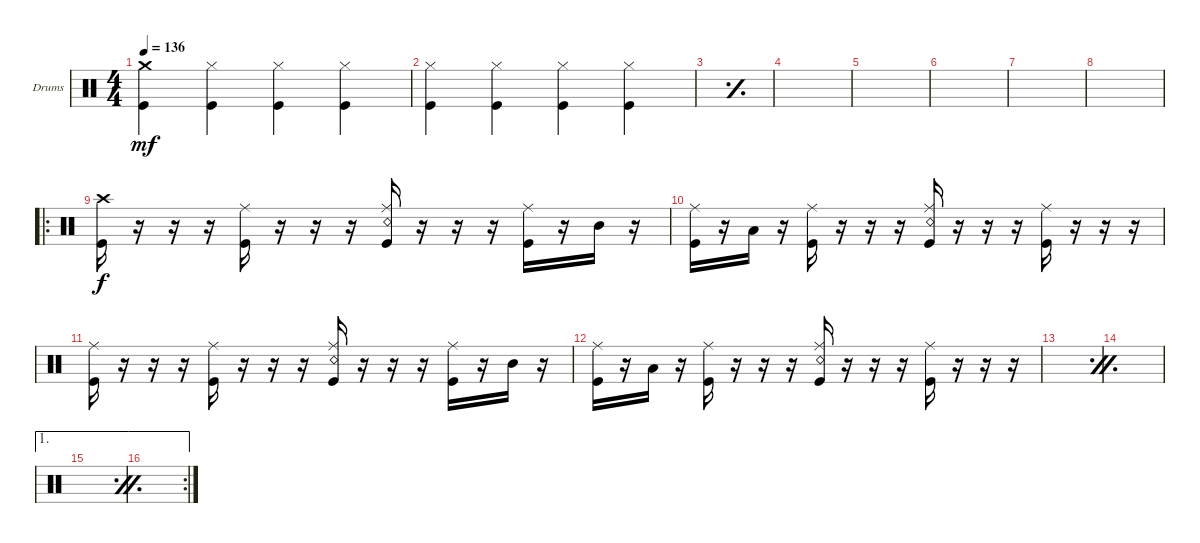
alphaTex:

\defaultSystemsLayout 4
\bracketExtendMode groupsimilarinstruments
\firstSystemTrackNameOrientation horizontal
\otherSystemsTrackNameOrientation horizontal
\track ("Drums" "Drums") {instrument percussion}
\staff {score}
\articulation defaults
\ts (4 4)
\tempo 136
\clef neutral
\ks c
("Crash medium (hit)" "Kick (hit)").4{dy mf} ("Hi-Hat (closed)" "Kick (hit)").4 ("Hi-Hat (closed)" "Kick (hit)").4 ("Hi-Hat (closed)" "Kick (hit)").4 |
("Hi-Hat (closed)" "Kick (hit)").4 ("Hi-Hat (closed)" "Kick (hit)").4 ("Hi-Hat (closed)" "Kick (hit)").4 ("Hi-Hat (closed)" "Kick (hit)").4 |
\simile simple
|
|
|
|
|
|
\ro
\simile none
("Kick (hit)" "Crash high (hit)").16{dy f} r.16 r.16 r.16 ("Ride (middle)" "Kick (hit)").16 r.16 r.16 r.16 ("Ride (middle)" "Snare (rim shot)" "Kick (hit)").16 r.16 r.16 r.16 ("Ride (middle)" "Kick (hit)").16 r.16 "Mid Tom (hit)".16 r.16 |
("Ride (middle)" "Kick (hit)").16 r.16 "Low Tom (hit)".16 r.16 ("Ride (middle)" "Kick (hit)").16 r.16 r.16 r.16 ("Ride (middle)" "Snare (rim shot)" "Kick (hit)").16 r.16 r.16 r.16 ("Ride (middle)" "Kick (hit)").16 r.16 r.16 r.16 |
("Ride (middle)" "Kick (hit)").16 r.16 r.16 r.16 ("Ride (middle)" "Kick (hit)").16 r.16 r.16 r.16 ("Ride (middle)" "Snare (rim shot)" "Kick (hit)").16 r.16 r.16 r.16 ("Ride (middle)" "Kick (hit)").16 r.16 "Mid Tom (hit)".16 r.16 |
("Ride (middle)" "Kick (hit)").16 r.16 "Low Tom (hit)".16 r.16 ("Ride (middle)" "Kick (hit)").16 r.16 r.16 r.16 ("Ride (middle)" "Snare (rim shot)" "Kick (hit)").16 r.16 r.16 r.16 ("Ride (middle)" "Kick (hit)").16 r.16 r.16 r.16 |
\simile firstofdouble
|
\simile secondofdouble
|
\ae 1
\simile firstofdouble
|
\ae 1
\rc 2
\simile secondofdouble
